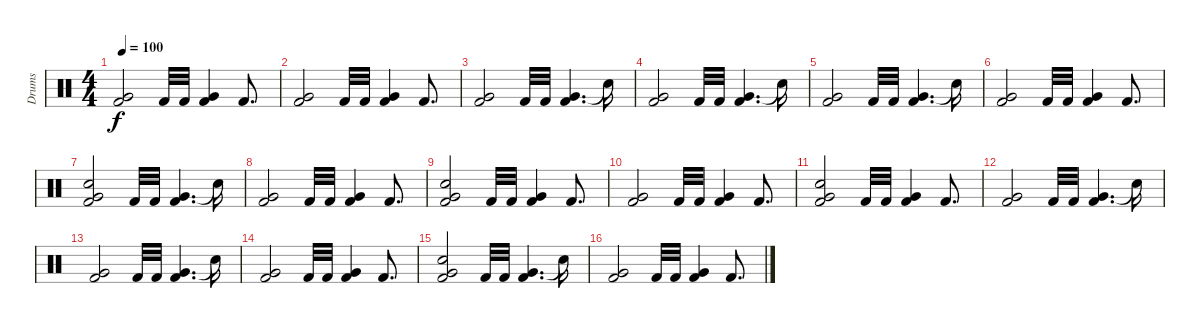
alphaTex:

\track ("Drums" "Drums") {instrument percussion}
\staff {score}
\articulation defaults
\ts (4 4)
\tempo 100
\clef neutral
\ks c
("Kick (hit) 2" "Very Low Tom (hit)").2{dy f} "Kick (hit) 2".32 "Kick (hit) 2".32 ("Very Low Tom (hit)" "Kick (hit) 2").4 "Kick (hit) 2".8{d} |
("Kick (hit) 2" "Very Low Tom (hit)").2 "Kick (hit) 2".32 "Kick (hit) 2".32 ("Very Low Tom (hit)" "Kick (hit) 2").4 "Kick (hit) 2".8{d} |
("Kick (hit) 2" "Very Low Tom (hit)").2 "Kick (hit) 2".32 "Kick (hit) 2".32 ("Very Low Tom (hit)" "Kick (hit) 2").4{d} "Snare (hit)"{t}.16 |
("Kick (hit) 2" "Very Low Tom (hit)").2 "Kick (hit) 2".32 "Kick (hit) 2".32 ("Very Low Tom (hit)" "Kick (hit) 2").4{d} "Snare (hit)"{t}.16 |
("Kick (hit) 2" "Very Low Tom (hit)").2 "Kick (hit) 2".32 "Kick (hit) 2".32 ("Very Low Tom (hit)" "Kick (hit) 2").4{d} "Snare (hit)"{t}.16 |
("Kick (hit) 2" "Very Low Tom (hit)").2 "Kick (hit) 2".32 "Kick (hit) 2".32 ("Very Low Tom (hit)" "Kick (hit) 2").4 "Kick (hit) 2".8{d} |
("Kick (hit) 2" "Snare (hit) 2" "Very Low Tom (hit)").2 "Kick (hit) 2".32 "Kick (hit) 2".32 ("Very Low Tom (hit)" "Kick (hit) 2").4{d} "Snare (hit)"{t}.16 |
("Kick (hit) 2" "Very Low Tom (hit)").2 "Kick (hit) 2".32 "Kick (hit) 2".32 ("Very Low Tom (hit)" "Kick (hit) 2").4 "Kick (hit) 2".8{d} |
("Kick (hit) 2" "Snare (hit) 2" "Very Low Tom (hit)").2 "Kick (hit) 2".32 "Kick (hit) 2".32 ("Very Low Tom (hit)" "Kick (hit) 2").4 "Kick (hit) 2".8{d} |
("Kick (hit) 2" "Very Low Tom (hit)").2 "Kick (hit) 2".32 "Kick (hit) 2".32 ("Very Low Tom (hit)" "Kick (hit) 2").4 "Kick (hit) 2".8{d} |
("Kick (hit) 2" "Snare (hit) 2" "Very Low Tom (hit)").2 "Kick (hit) 2".32 "Kick (hit) 2".32 ("Very Low Tom (hit)" "Kick (hit) 2").4 "Kick (hit) 2".8{d} |
("Kick (hit) 2" "Very Low Tom (hit)").2 "Kick (hit) 2".32 "Kick (hit) 2".32 ("Very Low Tom (hit)" "Kick (hit) 2").4{d} "Snare (hit)"{t}.16 |
("Kick (hit) 2" "Very Low Tom (hit)").2 "Kick (hit) 2".32 "Kick (hit) 2".32 ("Very Low Tom (hit)" "Kick (hit) 2").4{d} "Snare (hit)"{t}.16 |
("Kick (hit) 2" "Very Low Tom (hit)").2 "Kick (hit) 2".32 "Kick (hit) 2".32 ("Very Low Tom (hit)" "Kick (hit) 2").4 "Kick (hit) 2".8{d} |
("Kick (hit) 2" "Snare (hit) 2" "Very Low Tom (hit)").2 "Kick (hit) 2".32 "Kick (hit) 2".32 ("Very Low Tom (hit)" "Kick (hit) 2").4{d} "Snare (hit)"{t}.16 |
("Kick (hit) 2" "Very Low Tom (hit)").2 "Kick (hit) 2".32 "Kick (hit) 2".32 ("Very Low Tom (hit)" "Kick (hit) 2").4 "Kick (hit) 2".8{d}
